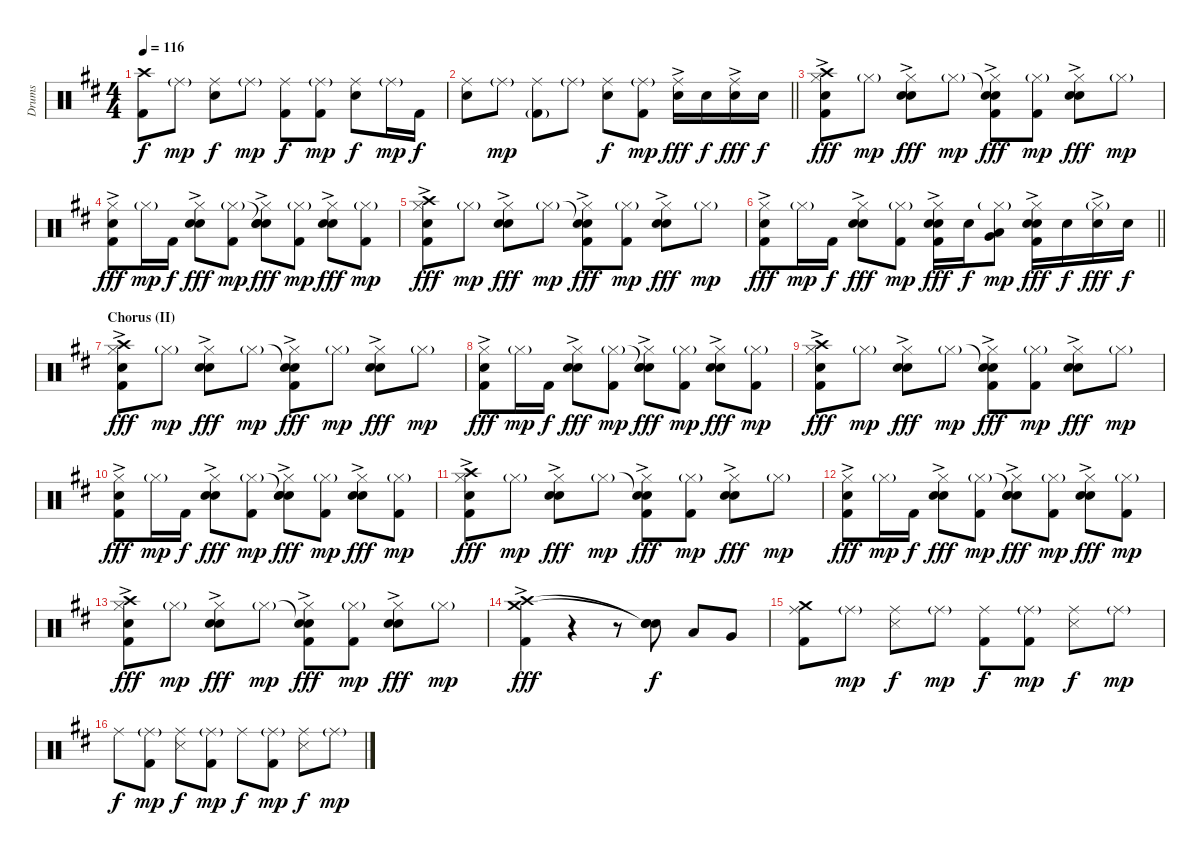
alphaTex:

\track ("Drums" "Drums") {instrument percussion}
\staff {score}
\articulation defaults
\ts (4 4)
\tempo 116
\clef neutral
\ks d
("Crash high (hit)" "Kick (hit) 2").8{dy f} "Ride (middle)"{g}.8{dy mp} ("Ride (middle)" "Snare (hit) 2").8{dy f} "Ride (middle)"{g}.8{dy mp} ("Ride (middle)" "Kick (hit) 2").8{dy f} ("Ride (middle)"{g} "Kick (hit) 2").8{dy mp} ("Ride (middle)" "Snare (hit) 2").8{dy f} "Ride (middle)"{g}.16{dy mp} "Kick (hit) 2".16{dy f} |
\barLineRight lightlight
("Ride (middle)" "Snare (hit) 2").8 "Ride (middle)"{g}.8{dy mp} ("Ride (middle)" "Kick (hit) 2"{g}).8 "Ride (middle)"{g}.8 ("Ride (middle)" "Snare (hit) 2").8{dy f} ("Ride (middle)"{g} "Kick (hit) 2").8{dy mp} ("Ride (middle)" "Snare (hit) 2"{ac}).16{dy fff} "Snare (hit) 2".16{dy f} ("Ride (middle)" "Snare (hit) 2"{ac}).16{dy fff} "Snare (hit) 2".16{dy f} |
("Crash high (hit)" "Hi-Hat (closed)" "Hand Clap (hit)"{ac} "Kick (hit) 2").8{dy fff} "Hi-Hat (closed)"{g}.8{dy mp} ("Hi-Hat (closed)" "Hand Clap (hit)"{ac} "Snare (hit) 2").8{dy fff} "Hi-Hat (closed)"{g}.8{dy mp} ("Snare (hit)"{t} "Hi-Hat (closed)" "Hand Clap (hit)"{ac} "Kick (hit) 2").8{dy fff} ("Hi-Hat (closed)"{g} "Kick (hit) 2").8{dy mp} ("Hi-Hat (closed)" "Hand Clap (hit)"{ac} "Snare (hit) 2").8{dy fff} "Hi-Hat (closed)"{g}.8{dy mp} |
("Hi-Hat (closed)" "Hand Clap (hit)"{ac} "Kick (hit) 2").8{dy fff} "Hi-Hat (closed)"{g}.16{dy mp} "Kick (hit) 2".16{dy f} ("Hi-Hat (closed)" "Hand Clap (hit)"{ac} "Snare (hit) 2").8{dy fff} ("Hi-Hat (closed)"{g} "Kick (hit) 2").8{dy mp} ("Snare (hit)"{t} "Hi-Hat (closed)" "Hand Clap (hit)"{ac} "Snare (hit) 2").8{dy fff} ("Hi-Hat (closed)"{g} "Kick (hit) 2").8{dy mp} ("Hi-Hat (closed)" "Hand Clap (hit)"{ac} "Snare (hit) 2").8{dy fff} ("Hi-Hat (closed)"{g} "Kick (hit) 2").8{dy mp} |
("Crash high (hit)" "Hi-Hat (closed)" "Hand Clap (hit)"{ac} "Kick (hit) 2").8{dy fff} "Hi-Hat (closed)"{g}.8{dy mp} ("Hi-Hat (closed)" "Hand Clap (hit)"{ac} "Snare (hit) 2").8{dy fff} "Hi-Hat (closed)"{g}.8{dy mp} ("Snare (hit)"{t} "Hi-Hat (closed)" "Hand Clap (hit)"{ac} "Kick (hit) 2").8{dy fff} ("Hi-Hat (closed)"{g} "Kick (hit) 2").8{dy mp} ("Hi-Hat (closed)" "Hand Clap (hit)"{ac} "Snare (hit) 2").8{dy fff} "Hi-Hat (closed)"{g}.8{dy mp} |
\barLineRight lightlight
("Hi-Hat (closed)" "Hand Clap (hit)"{ac} "Kick (hit) 2").8{dy fff} "Hi-Hat (closed)"{g}.16{dy mp} "Kick (hit) 2".16{dy f} ("Hi-Hat (closed)" "Hand Clap (hit)"{ac} "Snare (hit) 2").8{dy fff} ("Hi-Hat (closed)"{g} "Kick (hit) 2").8{dy mp} ("Hi-Hat (closed)" "Hand Clap (hit)"{ac} "Snare (hit) 2" "Kick (hit) 2").16{dy fff} "Snare (hit) 2".16{dy f} ("Hi-Hat (closed)"{g} "Low Tom (hit)" "Very Low Tom (hit)").8{dy mp} ("Hi-Hat (closed)" "Hand Clap (hit)"{ac} "Snare (hit) 2"{ac} "Kick (hit) 2").16{dy fff} "Snare (hit) 2".16{dy f} ("Hi-Hat (closed)"{g} "Snare (hit) 2"{ac}).16{dy fff} "Snare (hit) 2".16{dy f} |
\section ("" "Chorus (II)")
("Crash high (hit)" "Hi-Hat (closed)" "Hand Clap (hit)"{ac} "Kick (hit) 2").8{dy fff} "Hi-Hat (closed)"{g}.8{dy mp} ("Hi-Hat (closed)" "Hand Clap (hit)"{ac} "Snare (hit) 2").8{dy fff} "Hi-Hat (closed)"{g}.8{dy mp} ("Snare (hit)"{t} "Hi-Hat (closed)" "Hand Clap (hit)"{ac} "Kick (hit) 2").8{dy fff} "Hi-Hat (closed)"{g}.8{dy mp} ("Hi-Hat (closed)" "Hand Clap (hit)"{ac} "Snare (hit) 2").8{dy fff} "Hi-Hat (closed)"{g}.8{dy mp} |
("Hi-Hat (closed)" "Hand Clap (hit)"{ac} "Kick (hit) 2").8{dy fff} "Hi-Hat (closed)"{g}.16{dy mp} "Kick (hit) 2".16{dy f} ("Hi-Hat (closed)" "Hand Clap (hit)"{ac} "Snare (hit) 2").8{dy fff} ("Hi-Hat (closed)"{g} "Kick (hit) 2").8{dy mp} ("Snare (hit)"{t} "Hi-Hat (closed)" "Hand Clap (hit)"{ac} "Snare (hit) 2").8{dy fff} ("Hi-Hat (closed)"{g} "Kick (hit) 2").8{dy mp} ("Hi-Hat (closed)" "Hand Clap (hit)"{ac} "Snare (hit) 2").8{dy fff} ("Hi-Hat (closed)"{g} "Kick (hit) 2").8{dy mp} |
("Crash high (hit)" "Hi-Hat (closed)" "Hand Clap (hit)"{ac} "Kick (hit) 2").8{dy fff} "Hi-Hat (closed)"{g}.8{dy mp} ("Hi-Hat (closed)" "Hand Clap (hit)"{ac} "Snare (hit) 2").8{dy fff} "Hi-Hat (closed)"{g}.8{dy mp} ("Snare (hit)"{t} "Hi-Hat (closed)" "Hand Clap (hit)"{ac} "Kick (hit) 2").8{dy fff} ("Hi-Hat (closed)"{g} "Kick (hit) 2").8{dy mp} ("Hi-Hat (closed)" "Hand Clap (hit)"{ac} "Snare (hit) 2").8{dy fff} "Hi-Hat (closed)"{g}.8{dy mp} |
("Hi-Hat (closed)" "Hand Clap (hit)"{ac} "Kick (hit) 2").8{dy fff} "Hi-Hat (closed)"{g}.16{dy mp} "Kick (hit) 2".16{dy f} ("Hi-Hat (closed)" "Hand Clap (hit)"{ac} "Snare (hit) 2").8{dy fff} ("Hi-Hat (closed)"{g} "Kick (hit) 2").8{dy mp} ("Snare (hit)"{t} "Hi-Hat (closed)" "Hand Clap (hit)"{ac} "Snare (hit) 2").8{dy fff} ("Hi-Hat (closed)"{g} "Kick (hit) 2").8{dy mp} ("Hi-Hat (closed)" "Hand Clap (hit)"{ac} "Snare (hit) 2").8{dy fff} ("Hi-Hat (closed)"{g} "Kick (hit) 2").8{dy mp} |
("Crash high (hit)" "Hi-Hat (closed)" "Hand Clap (hit)"{ac} "Kick (hit) 2").8{dy fff} "Hi-Hat (closed)"{g}.8{dy mp} ("Hi-Hat (closed)" "Hand Clap (hit)"{ac} "Snare (hit) 2").8{dy fff} "Hi-Hat (closed)"{g}.8{dy mp} ("Snare (hit)"{t} "Hi-Hat (closed)" "Hand Clap (hit)"{ac} "Kick (hit) 2").8{dy fff} ("Hi-Hat (closed)"{g} "Kick (hit) 2").8{dy mp} ("Hi-Hat (closed)" "Hand Clap (hit)"{ac} "Snare (hit) 2").8{dy fff} "Hi-Hat (closed)"{g}.8{dy mp} |
("Hi-Hat (closed)" "Hand Clap (hit)"{ac} "Kick (hit) 2").8{dy fff} "Hi-Hat (closed)"{g}.16{dy mp} "Kick (hit) 2".16{dy f} ("Hi-Hat (closed)" "Hand Clap (hit)"{ac} "Snare (hit) 2").8{dy fff} ("Hi-Hat (closed)"{g} "Kick (hit) 2").8{dy mp} ("Snare (hit)"{t} "Hi-Hat (closed)" "Hand Clap (hit)"{ac} "Snare (hit) 2").8{dy fff} ("Hi-Hat (closed)"{g} "Kick (hit) 2").8{dy mp} ("Hi-Hat (closed)" "Hand Clap (hit)"{ac} "Snare (hit) 2").8{dy fff} ("Hi-Hat (closed)"{g} "Kick (hit) 2").8{dy mp} |
("Crash high (hit)" "Hi-Hat (closed)" "Hand Clap (hit)"{ac} "Kick (hit) 2").8{dy fff} "Hi-Hat (closed)"{g}.8{dy mp} ("Hi-Hat (closed)" "Hand Clap (hit)"{ac} "Snare (hit) 2").8{dy fff} "Hi-Hat (closed)"{g}.8{dy mp} ("Snare (hit)"{t} "Hi-Hat (closed)" "Hand Clap (hit)"{ac} "Kick (hit) 2").8{dy fff} ("Hi-Hat (closed)"{g} "Kick (hit) 2").8{dy mp} ("Hi-Hat (closed)" "Hand Clap (hit)"{ac} "Snare (hit) 2").8{dy fff} "Hi-Hat (closed)"{g}.8{dy mp} |
("Crash high (hit)"{ac} "Crash medium (hit)"{ac} "Kick (hit) 2").4{dy fff} r.4 r.8 ("Snare (hit)"{t} "Snare (hit)"{t} "Snare (hit) 2").8{dy f} "Low Tom (hit)".8 "Very Low Tom (hit)".8 |
("Crash medium (hit)" "Ride (middle)" "Kick (hit) 2").8 "Ride (middle)"{g}.8{dy mp} ("Ride (middle)" "Snare (side stick) 3").8{dy f} "Ride (middle)"{g}.8{dy mp} ("Ride (middle)" "Kick (hit) 2").8{dy f} ("Ride (middle)"{g} "Kick (hit) 2").8{dy mp} ("Ride (middle)" "Snare (side stick) 3").8{dy f} "Ride (middle)"{g}.8{dy mp} |
"Ride (middle)".8{dy f} ("Ride (middle)"{g} "Kick (hit) 2").8{dy mp} ("Ride (middle)" "Snare (side stick) 3").8{dy f} ("Ride (middle)"{g} "Kick (hit) 2").8{dy mp} "Ride (middle)".8{dy f} ("Ride (middle)"{g} "Kick (hit) 2").8{dy mp} ("Ride (middle)" "Snare (side stick) 3").8{dy f} "Ride (middle)"{g}.8{dy mp}
